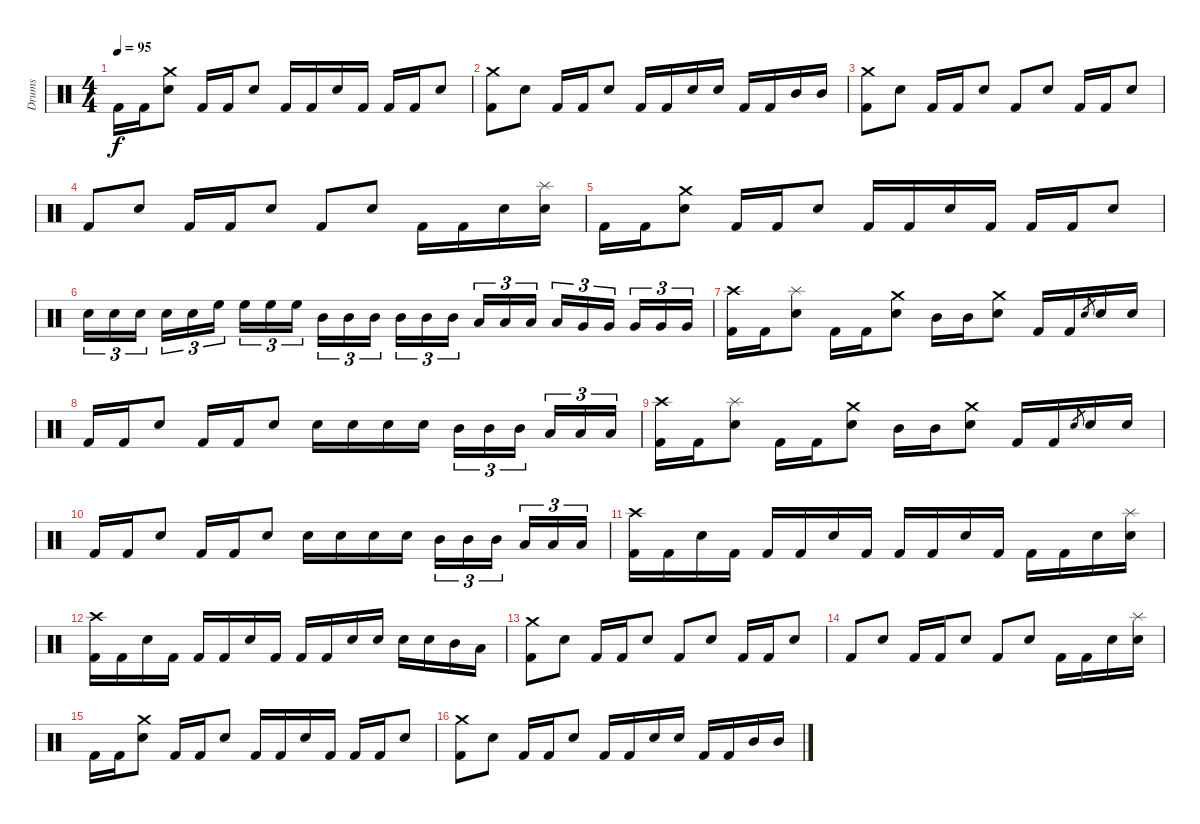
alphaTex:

\track ("Drums" "Drums") {instrument percussion}
\staff {score}
\articulation defaults
\ts (4 4)
\tempo 95
\clef neutral
\ks c "Kick (hit) 2".16{dy f} "Kick (hit) 2".16
("Crash medium (hit)" "Electric Snare (hit)").8 "Kick (hit) 2".16 "Kick (hit) 2".16 "Electric Snare (hit)".8 "Kick (hit) 2".16 "Kick (hit) 2".16 "Electric Snare (hit)".16 "Kick (hit) 2".16 "Kick (hit) 2".16 "Kick (hit) 2".16 "Electric Snare (hit)".8 |
("Crash medium (hit)" "Kick (hit) 2").8 "Electric Snare (hit)".8 "Kick (hit) 2".16 "Kick (hit) 2".16 "Electric Snare (hit)".8 "Kick (hit) 2".16 "Kick (hit) 2".16 "Electric Snare (hit)".16 "Electric Snare (hit)".16 "Kick (hit) 2".16 "Kick (hit) 2".16 "Mid Tom (hit)".16 "Mid Tom (hit)".16 |
("Crash medium (hit)" "Kick (hit) 2").8 "Electric Snare (hit)".8 "Kick (hit) 2".16 "Kick (hit) 2".16 "Electric Snare (hit)".8 "Kick (hit) 2".8 "Electric Snare (hit)".8 "Kick (hit) 2".16 "Kick (hit) 2".16 "Electric Snare (hit)".8 |
"Kick (hit) 2".8 "Electric Snare (hit)".8 "Kick (hit) 2".16 "Kick (hit) 2".16 "Electric Snare (hit)".8 "Kick (hit) 2".8 "Electric Snare (hit)".8 "Kick (hit) 2".16 "Kick (hit) 2".16 "Electric Snare (hit)".16 ("Splash (hit)" "Electric Snare (hit)").16 |
"Kick (hit) 2".16 "Kick (hit) 2".16 ("Crash medium (hit)" "Electric Snare (hit)").8 "Kick (hit) 2".16 "Kick (hit) 2".16 "Electric Snare (hit)".8 "Kick (hit) 2".16 "Kick (hit) 2".16 "Electric Snare (hit)".16 "Kick (hit) 2".16 "Kick (hit) 2".16 "Kick (hit) 2".16 "Electric Snare (hit)".8 |
"Electric Snare (hit)".16{tu (3 2)} "Electric Snare (hit)".16{tu (3 2)} "Electric Snare (hit)".16{tu (3 2)} "Electric Snare (hit)".16{tu (3 2)} "Electric Snare (hit)".16{tu (3 2)} "High Floor Tom (hit)".16{tu (3 2)} "High Floor Tom (hit)".16{tu (3 2)} "High Floor Tom (hit)".16{tu (3 2)} "High Floor Tom (hit)".16{tu (3 2)} "Mid Tom (hit)".16{tu (3 2)} "Mid Tom (hit)".16{tu (3 2)} "Mid Tom (hit)".16{tu (3 2)} "Mid Tom (hit)".16{tu (3 2)} "Mid Tom (hit)".16{tu (3 2)} "Mid Tom (hit)".16{tu (3 2)} "Low Tom (hit)".16{tu (3 2)} "Low Tom (hit)".16{tu (3 2)} "Low Tom (hit)".16{tu (3 2)} "Low Tom (hit)".16{tu (3 2)} "Very Low Tom (hit)".16{tu (3 2)} "Very Low Tom (hit)".16{tu (3 2)} "Very Low Tom (hit)".16{tu (3 2)} "Very Low Tom (hit)".16{tu (3 2)} "Very Low Tom (hit)".16{tu (3 2)} |
("Crash high (hit)" "Kick (hit) 2").16 "Kick (hit) 2".16 ("Splash (hit)" "Electric Snare (hit)").8 "Kick (hit) 2".16 "Kick (hit) 2".16 ("Crash medium (hit)" "Electric Snare (hit)").8 "Mid Tom (hit)".16 "Mid Tom (hit)".16 ("Crash medium (hit)" "Electric Snare (hit)").8 "Kick (hit) 2".16 "Kick (hit) 2".16 "Electric Snare (hit)".8{gr} "Electric Snare (hit)".16 "Electric Snare (hit)".16 |
"Kick (hit) 2".16 "Kick (hit) 2".16 "Electric Snare (hit)".8 "Kick (hit) 2".16 "Kick (hit) 2".16 "Electric Snare (hit)".8 "Electric Snare (hit)".16 "Electric Snare (hit)".16 "Electric Snare (hit)".16 "Electric Snare (hit)".16 "Mid Tom (hit)".16{tu (3 2)} "Mid Tom (hit)".16{tu (3 2)} "Mid Tom (hit)".16{tu (3 2)} "Low Tom (hit)".16{tu (3 2)} "Low Tom (hit)".16{tu (3 2)} "Low Tom (hit)".16{tu (3 2)} |
("Crash high (hit)" "Kick (hit) 2").16 "Kick (hit) 2".16 ("Splash (hit)" "Electric Snare (hit)").8 "Kick (hit) 2".16 "Kick (hit) 2".16 ("Crash medium (hit)" "Electric Snare (hit)").8 "Mid Tom (hit)".16 "Mid Tom (hit)".16 ("Crash medium (hit)" "Electric Snare (hit)").8 "Kick (hit) 2".16 "Kick (hit) 2".16 "Electric Snare (hit)".8{gr} "Electric Snare (hit)".16 "Electric Snare (hit)".16 |
"Kick (hit) 2".16 "Kick (hit) 2".16 "Electric Snare (hit)".8 "Kick (hit) 2".16 "Kick (hit) 2".16 "Electric Snare (hit)".8 "Electric Snare (hit)".16 "Electric Snare (hit)".16 "Electric Snare (hit)".16 "Electric Snare (hit)".16 "Mid Tom (hit)".16{tu (3 2)} "Mid Tom (hit)".16{tu (3 2)} "Mid Tom (hit)".16{tu (3 2)} "Low Tom (hit)".16{tu (3 2)} "Low Tom (hit)".16{tu (3 2)} "Low Tom (hit)".16{tu (3 2)} |
("Crash high (hit)" "Kick (hit) 2").16 "Kick (hit) 2".16 "Electric Snare (hit)".16 "Kick (hit) 2".16 "Kick (hit) 2".16 "Kick (hit) 2".16 "Electric Snare (hit)".16 "Kick (hit) 2".16 "Kick (hit) 2".16 "Kick (hit) 2".16 "Electric Snare (hit)".16 "Kick (hit) 2".16 "Kick (hit) 2".16 "Kick (hit) 2".16 "Electric Snare (hit)".16 ("Splash (hit)" "Electric Snare (hit)").16 |
("Crash high (hit)" "Kick (hit) 2").16 "Kick (hit) 2".16 "Electric Snare (hit)".16 "Kick (hit) 2".16 "Kick (hit) 2".16 "Kick (hit) 2".16 "Electric Snare (hit)".16 "Kick (hit) 2".16 "Kick (hit) 2".16 "Kick (hit) 2".16 "Electric Snare (hit)".16 "Electric Snare (hit)".16 "Electric Snare (hit)".16 "Electric Snare (hit)".16 "Mid Tom (hit)".16 "Low Tom (hit)".16 |
("Crash medium (hit)" "Kick (hit) 2").8 "Electric Snare (hit)".8 "Kick (hit) 2".16 "Kick (hit) 2".16 "Electric Snare (hit)".8 "Kick (hit) 2".8 "Electric Snare (hit)".8 "Kick (hit) 2".16 "Kick (hit) 2".16 "Electric Snare (hit)".8 |
"Kick (hit) 2".8 "Electric Snare (hit)".8 "Kick (hit) 2".16 "Kick (hit) 2".16 "Electric Snare (hit)".8 "Kick (hit) 2".8 "Electric Snare (hit)".8 "Kick (hit) 2".16 "Kick (hit) 2".16 "Electric Snare (hit)".16 ("Splash (hit)" "Electric Snare (hit)").16 |
"Kick (hit) 2".16 "Kick (hit) 2".16 ("Crash medium (hit)" "Electric Snare (hit)").8 "Kick (hit) 2".16 "Kick (hit) 2".16 "Electric Snare (hit)".8 "Kick (hit) 2".16 "Kick (hit) 2".16 "Electric Snare (hit)".16 "Kick (hit) 2".16 "Kick (hit) 2".16 "Kick (hit) 2".16 "Electric Snare (hit)".8 |
("Crash medium (hit)" "Kick (hit) 2").8 "Electric Snare (hit)".8 "Kick (hit) 2".16 "Kick (hit) 2".16 "Electric Snare (hit)".8 "Kick (hit) 2".16 "Kick (hit) 2".16 "Electric Snare (hit)".16 "Electric Snare (hit)".16 "Kick (hit) 2".16 "Kick (hit) 2".16 "Mid Tom (hit)".16 "Mid Tom (hit)".16
